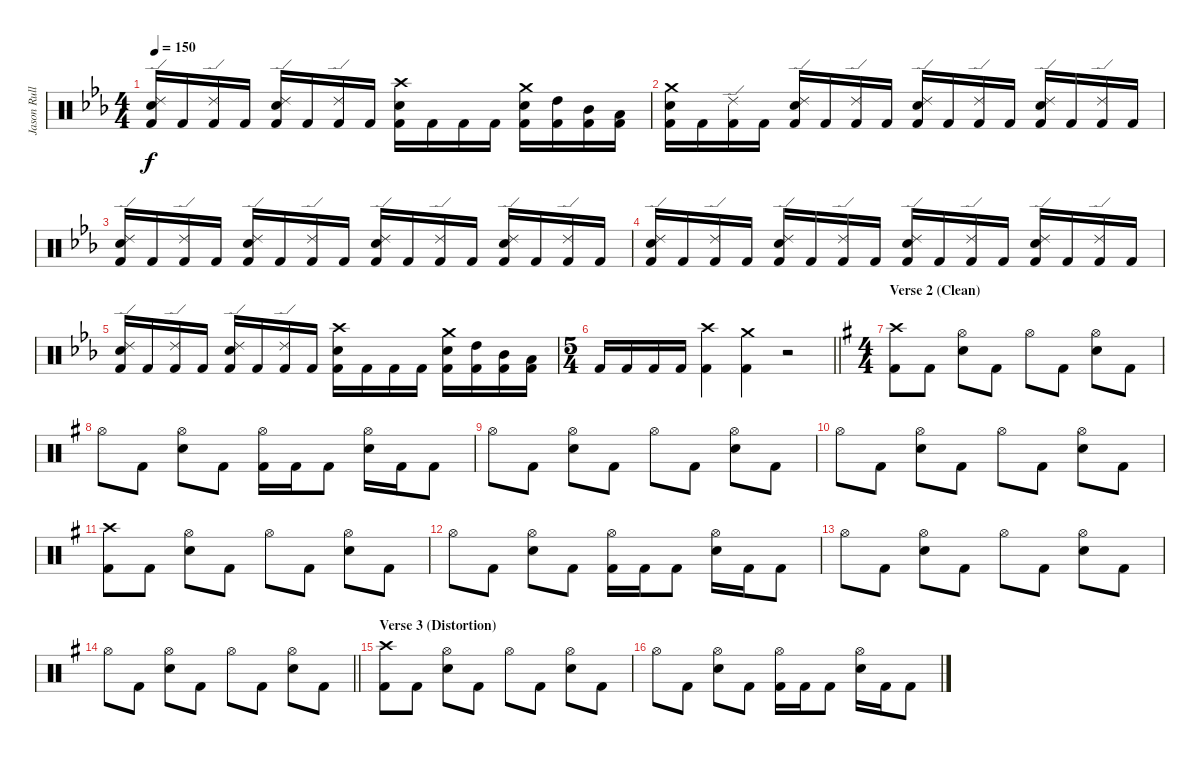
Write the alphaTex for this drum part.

\track ("Jason Rullo" "Jason Rull") {instrument percussion}
\staff {score}
\articulation defaults
\ts (4 4)
\tempo 150
\clef neutral
\ks cminor
("Ride (edge) 2" "Electric Snare (hit)" "Kick (hit) 2").16{dy f} "Kick (hit) 2".16 ("Ride (edge) 2" "Kick (hit) 2").16 "Kick (hit) 2".16 ("Ride (edge) 2" "Electric Snare (hit)" "Kick (hit) 2").16 "Kick (hit) 2".16 ("Ride (edge) 2" "Kick (hit) 2").16 "Kick (hit) 2".16 ("Crash high (hit)" "Electric Snare (hit)" "Kick (hit) 2").16 "Kick (hit) 2".16 "Kick (hit) 2".16 "Kick (hit) 2".16 ("Crash medium (hit)" "Electric Snare (hit)" "Kick (hit) 2").16 ("High Tom (hit)" "Kick (hit) 2").16 ("Mid Tom (hit)" "Kick (hit) 2").16 ("Low Tom (hit)" "Kick (hit) 2").16 |
("Crash medium (hit)" "Electric Snare (hit)" "Kick (hit) 2").16 "Kick (hit) 2".16 ("Ride (edge) 2" "Kick (hit) 2").16 "Kick (hit) 2".16 ("Ride (edge) 2" "Electric Snare (hit)" "Kick (hit) 2").16 "Kick (hit) 2".16 ("Ride (edge) 2" "Kick (hit) 2").16 "Kick (hit) 2".16 ("Ride (edge) 2" "Electric Snare (hit)" "Kick (hit) 2").16 "Kick (hit) 2".16 ("Ride (edge) 2" "Kick (hit) 2").16 "Kick (hit) 2".16 ("Ride (edge) 2" "Electric Snare (hit)" "Kick (hit) 2").16 "Kick (hit) 2".16 ("Ride (edge) 2" "Kick (hit) 2").16 "Kick (hit) 2".16 |
("Ride (edge) 2" "Electric Snare (hit)" "Kick (hit) 2").16 "Kick (hit) 2".16 ("Ride (edge) 2" "Kick (hit) 2").16 "Kick (hit) 2".16 ("Ride (edge) 2" "Electric Snare (hit)" "Kick (hit) 2").16 "Kick (hit) 2".16 ("Ride (edge) 2" "Kick (hit) 2").16 "Kick (hit) 2".16 ("Ride (edge) 2" "Electric Snare (hit)" "Kick (hit) 2").16 "Kick (hit) 2".16 ("Ride (edge) 2" "Kick (hit) 2").16 "Kick (hit) 2".16 ("Ride (edge) 2" "Electric Snare (hit)" "Kick (hit) 2").16 "Kick (hit) 2".16 ("Ride (edge) 2" "Kick (hit) 2").16 "Kick (hit) 2".16 |
("Ride (edge) 2" "Electric Snare (hit)" "Kick (hit) 2").16 "Kick (hit) 2".16 ("Ride (edge) 2" "Kick (hit) 2").16 "Kick (hit) 2".16 ("Ride (edge) 2" "Electric Snare (hit)" "Kick (hit) 2").16 "Kick (hit) 2".16 ("Ride (edge) 2" "Kick (hit) 2").16 "Kick (hit) 2".16 ("Ride (edge) 2" "Electric Snare (hit)" "Kick (hit) 2").16 "Kick (hit) 2".16 ("Ride (edge) 2" "Kick (hit) 2").16 "Kick (hit) 2".16 ("Ride (edge) 2" "Electric Snare (hit)" "Kick (hit) 2").16 "Kick (hit) 2".16 ("Ride (edge) 2" "Kick (hit) 2").16 "Kick (hit) 2".16 |
("Ride (edge) 2" "Electric Snare (hit)" "Kick (hit) 2").16 "Kick (hit) 2".16 ("Ride (edge) 2" "Kick (hit) 2").16 "Kick (hit) 2".16 ("Ride (edge) 2" "Electric Snare (hit)" "Kick (hit) 2").16 "Kick (hit) 2".16 ("Ride (edge) 2" "Kick (hit) 2").16 "Kick (hit) 2".16 ("Crash high (hit)" "Electric Snare (hit)" "Kick (hit) 2").16 "Kick (hit) 2".16 "Kick (hit) 2".16 "Kick (hit) 2".16 ("Crash medium (hit)" "Electric Snare (hit)" "Kick (hit) 2").16 ("High Tom (hit)" "Kick (hit) 2").16 ("Mid Tom (hit)" "Kick (hit) 2").16 ("Low Tom (hit)" "Kick (hit) 2").16 |
\ts (5 4)
\barLineRight lightlight "Kick (hit) 2".16 "Kick (hit) 2".16 "Kick (hit) 2".16 "Kick (hit) 2".16
("Crash high (hit)" "Kick (hit) 2").4 ("Crash medium (hit)" "Kick (hit) 2").4 r.2 |
\ts (4 4)
\section ("" "Verse 2 (Clean)")
\ks eminor
("Crash high (hit)" "Kick (hit) 2").8 "Kick (hit) 2".8 ("Hi-Hat (open)" "Electric Snare (hit)").8 "Kick (hit) 2".8 "Hi-Hat (open)".8 "Kick (hit) 2".8 ("Hi-Hat (open)" "Electric Snare (hit)").8 "Kick (hit) 2".8 |
"Hi-Hat (open)".8 "Kick (hit) 2".8 ("Hi-Hat (open)" "Electric Snare (hit)").8 "Kick (hit) 2".8 ("Hi-Hat (open)" "Kick (hit) 2").16 "Kick (hit) 2".16 "Kick (hit) 2".8 ("Hi-Hat (open)" "Electric Snare (hit)").16 "Kick (hit) 2".16 "Kick (hit) 2".8 |
"Hi-Hat (open)".8 "Kick (hit) 2".8 ("Hi-Hat (open)" "Electric Snare (hit)").8 "Kick (hit) 2".8 "Hi-Hat (open)".8 "Kick (hit) 2".8 ("Hi-Hat (open)" "Electric Snare (hit)").8 "Kick (hit) 2".8 |
"Hi-Hat (open)".8 "Kick (hit) 2".8 ("Hi-Hat (open)" "Electric Snare (hit)").8 "Kick (hit) 2".8 "Hi-Hat (open)".8 "Kick (hit) 2".8 ("Hi-Hat (open)" "Electric Snare (hit)").8 "Kick (hit) 2".8 |
("Crash high (hit)" "Kick (hit) 2").8 "Kick (hit) 2".8 ("Hi-Hat (open)" "Electric Snare (hit)").8 "Kick (hit) 2".8 "Hi-Hat (open)".8 "Kick (hit) 2".8 ("Hi-Hat (open)" "Electric Snare (hit)").8 "Kick (hit) 2".8 |
"Hi-Hat (open)".8 "Kick (hit) 2".8 ("Hi-Hat (open)" "Electric Snare (hit)").8 "Kick (hit) 2".8 ("Hi-Hat (open)" "Kick (hit) 2").16 "Kick (hit) 2".16 "Kick (hit) 2".8 ("Hi-Hat (open)" "Electric Snare (hit)").16 "Kick (hit) 2".16 "Kick (hit) 2".8 |
"Hi-Hat (open)".8 "Kick (hit) 2".8 ("Hi-Hat (open)" "Electric Snare (hit)").8 "Kick (hit) 2".8 "Hi-Hat (open)".8 "Kick (hit) 2".8 ("Hi-Hat (open)" "Electric Snare (hit)").8 "Kick (hit) 2".8 |
\barLineRight lightlight "Hi-Hat (open)".8 "Kick (hit) 2".8
("Hi-Hat (open)" "Electric Snare (hit)").8 "Kick (hit) 2".8 "Hi-Hat (open)".8 "Kick (hit) 2".8 ("Hi-Hat (open)" "Electric Snare (hit)").8 "Kick (hit) 2".8 |
\section ("" "Verse 3 (Distortion)")
("Crash high (hit)" "Kick (hit) 2").8 "Kick (hit) 2".8 ("Hi-Hat (open)" "Electric Snare (hit)").8 "Kick (hit) 2".8 "Hi-Hat (open)".8 "Kick (hit) 2".8 ("Hi-Hat (open)" "Electric Snare (hit)").8 "Kick (hit) 2".8 |
"Hi-Hat (open)".8 "Kick (hit) 2".8 ("Hi-Hat (open)" "Electric Snare (hit)").8 "Kick (hit) 2".8 ("Hi-Hat (open)" "Kick (hit) 2").16 "Kick (hit) 2".16 "Kick (hit) 2".8 ("Hi-Hat (open)" "Electric Snare (hit)").16 "Kick (hit) 2".16 "Kick (hit) 2".8
